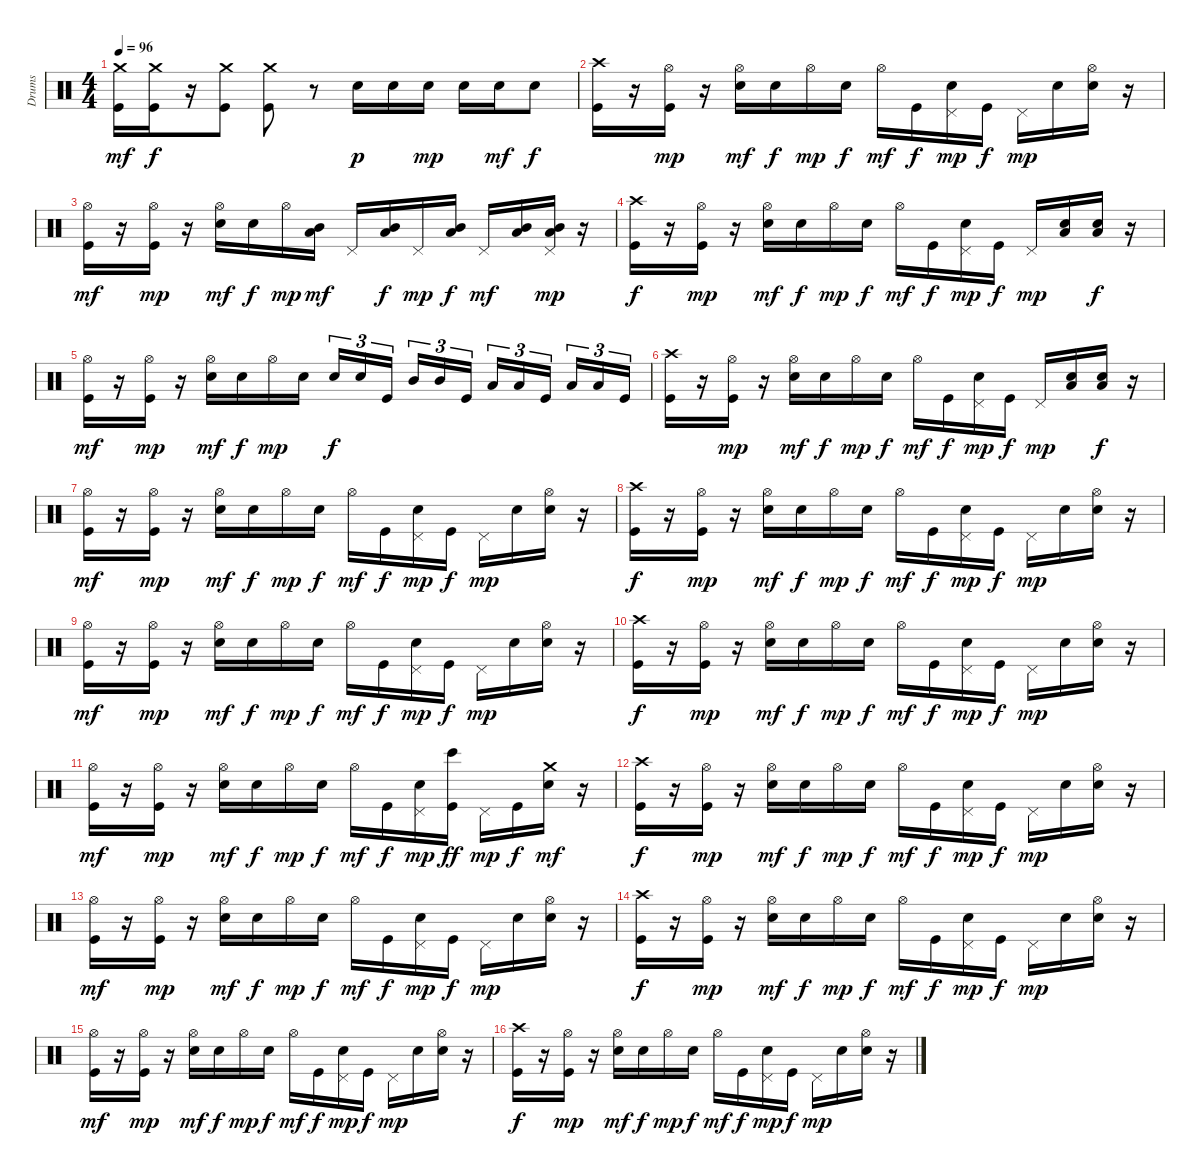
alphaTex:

\track ("Drums" "Drums") {instrument percussion}
\staff {score}
\articulation defaults
\ts (4 4)
\tempo 96
\clef neutral
\ks c
("Crash medium (hit)" "Kick (hit)").16{dy mf} ("Crash medium (hit)" "Kick (hit)").16{dy f} r.16 ("Crash medium (hit)" "Kick (hit)").8 ("Crash medium (hit)" "Kick (hit)").8 r.8 "Snare (hit) 2".16{dy p} "Snare (hit) 2".16 "Snare (hit) 2".16{dy mp} "Snare (hit) 2".16 "Snare (hit) 2".16{dy mf} "Snare (hit) 2".8{dy f} |
("Crash high (hit)" "Kick (hit)").16 r.16 ("Hi-Hat (open)" "Kick (hit)").16{dy mp} r.16 ("Hi-Hat (open)" "Snare (hit) 2").16{dy mf} "Snare (hit) 2".16{dy f} "Hi-Hat (open)".16{dy mp} "Snare (hit) 2".16{dy f} "Hi-Hat (open)".16{dy mf} "Kick (hit)".16{dy f} ("Pedal Hi-Hat (hit)" "Snare (hit) 2").16{dy mp} "Kick (hit)".16{dy f} "Pedal Hi-Hat (hit)".16{dy mp} "Snare (hit) 2".16 ("Hi-Hat (open)" "Snare (hit) 2").16 r.16 |
("Hi-Hat (open)" "Kick (hit)").16{dy mf} r.16 ("Hi-Hat (open)" "Kick (hit)").16{dy mp} r.16 ("Hi-Hat (open)" "Snare (hit) 2").16{dy mf} "Snare (hit) 2".16{dy f} "Hi-Hat (open)".16{dy mp} ("Low Tom (hit)" "Mid Tom (hit)").16{dy mf} "Pedal Hi-Hat (hit)".16 ("Low Tom (hit)" "Mid Tom (hit)").16{dy f} "Pedal Hi-Hat (hit)".16{dy mp} ("Low Tom (hit)" "Mid Tom (hit)").16{dy f} "Pedal Hi-Hat (hit)".16{dy mf} ("Low Tom (hit)" "Mid Tom (hit)").16 ("Pedal Hi-Hat (hit)" "Low Tom (hit)" "Mid Tom (hit)").16{dy mp} r.16 |
("Crash high (hit)" "Kick (hit)").16{dy f} r.16 ("Hi-Hat (open)" "Kick (hit)").16{dy mp} r.16 ("Hi-Hat (open)" "Snare (hit) 2").16{dy mf} "Snare (hit) 2".16{dy f} "Hi-Hat (open)".16{dy mp} "Snare (hit) 2".16{dy f} "Hi-Hat (open)".16{dy mf} "Kick (hit)".16{dy f} ("Pedal Hi-Hat (hit)" "Snare (hit) 2").16{dy mp} "Kick (hit)".16{dy f} "Pedal Hi-Hat (hit)".16{dy mp} ("Low Tom (hit)" "Snare (hit) 2").16 ("Low Tom (hit)" "Snare (hit) 2").16{dy f} r.16 |
("Hi-Hat (open)" "Kick (hit)").16{dy mf} r.16 ("Hi-Hat (open)" "Kick (hit)").16{dy mp} r.16 ("Hi-Hat (open)" "Snare (hit) 2").16{dy mf} "Snare (hit) 2".16{dy f} "Hi-Hat (open)".16{dy mp} "Snare (hit) 2".16 "Snare (hit) 2".16{tu (3 2) dy f} "Snare (hit) 2".16{tu (3 2)} "Kick (hit)".16{tu (3 2)} "Mid Tom (hit)".16{tu (3 2)} "Mid Tom (hit)".16{tu (3 2)} "Kick (hit)".16{tu (3 2)} "Low Tom (hit)".16{tu (3 2)} "Low Tom (hit)".16{tu (3 2)} "Kick (hit)".16{tu (3 2)} "Low Tom (hit)".16{tu (3 2)} "Low Tom (hit)".16{tu (3 2)} "Kick (hit)".16{tu (3 2)} |
("Crash high (hit)" "Kick (hit)").16 r.16 ("Hi-Hat (open)" "Kick (hit)").16{dy mp} r.16 ("Hi-Hat (open)" "Snare (hit) 2").16{dy mf} "Snare (hit) 2".16{dy f} "Hi-Hat (open)".16{dy mp} "Snare (hit) 2".16{dy f} "Hi-Hat (open)".16{dy mf} "Kick (hit)".16{dy f} ("Pedal Hi-Hat (hit)" "Snare (hit) 2").16{dy mp} "Kick (hit)".16{dy f} "Pedal Hi-Hat (hit)".16{dy mp} ("Low Tom (hit)" "Snare (hit) 2").16 ("Low Tom (hit)" "Snare (hit) 2").16{dy f} r.16 |
("Hi-Hat (open)" "Kick (hit)").16{dy mf} r.16 ("Hi-Hat (open)" "Kick (hit)").16{dy mp} r.16 ("Hi-Hat (open)" "Snare (hit) 2").16{dy mf} "Snare (hit) 2".16{dy f} "Hi-Hat (open)".16{dy mp} "Snare (hit) 2".16{dy f} "Hi-Hat (open)".16{dy mf} "Kick (hit)".16{dy f} ("Pedal Hi-Hat (hit)" "Snare (hit) 2").16{dy mp} "Kick (hit)".16{dy f} "Pedal Hi-Hat (hit)".16{dy mp} "Snare (hit) 2".16 ("Hi-Hat (open)" "Snare (hit) 2").16 r.16 |
("Crash high (hit)" "Kick (hit)").16{dy f} r.16 ("Hi-Hat (open)" "Kick (hit)").16{dy mp} r.16 ("Hi-Hat (open)" "Snare (hit) 2").16{dy mf} "Snare (hit) 2".16{dy f} "Hi-Hat (open)".16{dy mp} "Snare (hit) 2".16{dy f} "Hi-Hat (open)".16{dy mf} "Kick (hit)".16{dy f} ("Pedal Hi-Hat (hit)" "Snare (hit) 2").16{dy mp} "Kick (hit)".16{dy f} "Pedal Hi-Hat (hit)".16{dy mp} "Snare (hit) 2".16 ("Hi-Hat (open)" "Snare (hit) 2").16 r.16 |
("Hi-Hat (open)" "Kick (hit)").16{dy mf} r.16 ("Hi-Hat (open)" "Kick (hit)").16{dy mp} r.16 ("Hi-Hat (open)" "Snare (hit) 2").16{dy mf} "Snare (hit) 2".16{dy f} "Hi-Hat (open)".16{dy mp} "Snare (hit) 2".16{dy f} "Hi-Hat (open)".16{dy mf} "Kick (hit)".16{dy f} ("Pedal Hi-Hat (hit)" "Snare (hit) 2").16{dy mp} "Kick (hit)".16{dy f} "Pedal Hi-Hat (hit)".16{dy mp} "Snare (hit) 2".16 ("Hi-Hat (open)" "Snare (hit) 2").16 r.16 |
("Crash high (hit)" "Kick (hit)").16{dy f} r.16 ("Hi-Hat (open)" "Kick (hit)").16{dy mp} r.16 ("Hi-Hat (open)" "Snare (hit) 2").16{dy mf} "Snare (hit) 2".16{dy f} "Hi-Hat (open)".16{dy mp} "Snare (hit) 2".16{dy f} "Hi-Hat (open)".16{dy mf} "Kick (hit)".16{dy f} ("Pedal Hi-Hat (hit)" "Snare (hit) 2").16{dy mp} "Kick (hit)".16{dy f} "Pedal Hi-Hat (hit)".16{dy mp} "Snare (hit) 2".16 ("Hi-Hat (open)" "Snare (hit) 2").16 r.16 |
("Hi-Hat (open)" "Kick (hit)").16{dy mf} r.16 ("Hi-Hat (open)" "Kick (hit)").16{dy mp} r.16 ("Hi-Hat (open)" "Snare (hit) 2").16{dy mf} "Snare (hit) 2".16{dy f} "Hi-Hat (open)".16{dy mp} "Snare (hit) 2".16{dy f} "Hi-Hat (open)".16{dy mf} "Kick (hit)".16{dy f} ("Pedal Hi-Hat (hit)" "Snare (hit) 2").16{dy mp} ("Bongo High (hit)" "Kick (hit)").16{dy ff} "Pedal Hi-Hat (hit)".16{dy mp} "Kick (hit)".16{dy f} ("Crash medium (hit)" "Snare (hit) 2").16{dy mf} r.16 |
("Crash high (hit)" "Kick (hit)").16{dy f} r.16 ("Hi-Hat (open)" "Kick (hit)").16{dy mp} r.16 ("Hi-Hat (open)" "Snare (hit) 2").16{dy mf} "Snare (hit) 2".16{dy f} "Hi-Hat (open)".16{dy mp} "Snare (hit) 2".16{dy f} "Hi-Hat (open)".16{dy mf} "Kick (hit)".16{dy f} ("Pedal Hi-Hat (hit)" "Snare (hit) 2").16{dy mp} "Kick (hit)".16{dy f} "Pedal Hi-Hat (hit)".16{dy mp} "Snare (hit) 2".16 ("Hi-Hat (open)" "Snare (hit) 2").16 r.16 |
("Hi-Hat (open)" "Kick (hit)").16{dy mf} r.16 ("Hi-Hat (open)" "Kick (hit)").16{dy mp} r.16 ("Hi-Hat (open)" "Snare (hit) 2").16{dy mf} "Snare (hit) 2".16{dy f} "Hi-Hat (open)".16{dy mp} "Snare (hit) 2".16{dy f} "Hi-Hat (open)".16{dy mf} "Kick (hit)".16{dy f} ("Pedal Hi-Hat (hit)" "Snare (hit) 2").16{dy mp} "Kick (hit)".16{dy f} "Pedal Hi-Hat (hit)".16{dy mp} "Snare (hit) 2".16 ("Hi-Hat (open)" "Snare (hit) 2").16 r.16 |
("Crash high (hit)" "Kick (hit)").16{dy f} r.16 ("Hi-Hat (open)" "Kick (hit)").16{dy mp} r.16 ("Hi-Hat (open)" "Snare (hit) 2").16{dy mf} "Snare (hit) 2".16{dy f} "Hi-Hat (open)".16{dy mp} "Snare (hit) 2".16{dy f} "Hi-Hat (open)".16{dy mf} "Kick (hit)".16{dy f} ("Pedal Hi-Hat (hit)" "Snare (hit) 2").16{dy mp} "Kick (hit)".16{dy f} "Pedal Hi-Hat (hit)".16{dy mp} "Snare (hit) 2".16 ("Hi-Hat (open)" "Snare (hit) 2").16 r.16 |
("Hi-Hat (open)" "Kick (hit)").16{dy mf} r.16 ("Hi-Hat (open)" "Kick (hit)").16{dy mp} r.16 ("Hi-Hat (open)" "Snare (hit) 2").16{dy mf} "Snare (hit) 2".16{dy f} "Hi-Hat (open)".16{dy mp} "Snare (hit) 2".16{dy f} "Hi-Hat (open)".16{dy mf} "Kick (hit)".16{dy f} ("Pedal Hi-Hat (hit)" "Snare (hit) 2").16{dy mp} "Kick (hit)".16{dy f} "Pedal Hi-Hat (hit)".16{dy mp} "Snare (hit) 2".16 ("Hi-Hat (open)" "Snare (hit) 2").16 r.16 |
("Crash high (hit)" "Kick (hit)").16{dy f} r.16 ("Hi-Hat (open)" "Kick (hit)").16{dy mp} r.16 ("Hi-Hat (open)" "Snare (hit) 2").16{dy mf} "Snare (hit) 2".16{dy f} "Hi-Hat (open)".16{dy mp} "Snare (hit) 2".16{dy f} "Hi-Hat (open)".16{dy mf} "Kick (hit)".16{dy f} ("Pedal Hi-Hat (hit)" "Snare (hit) 2").16{dy mp} "Kick (hit)".16{dy f} "Pedal Hi-Hat (hit)".16{dy mp} "Snare (hit) 2".16 ("Hi-Hat (open)" "Snare (hit) 2").16 r.16
